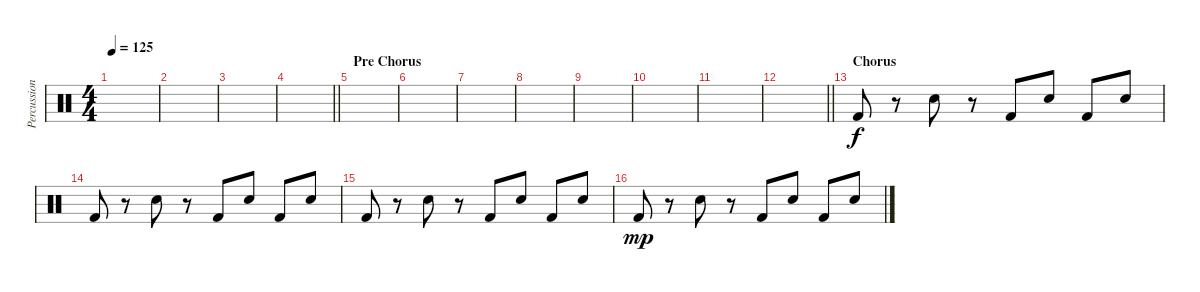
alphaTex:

\track ("Percussion" "Percussion") {instrument percussion}
\staff {score}
\articulation defaults
\ts (4 4)
\tempo 125
\clef neutral
\ks c
|
|
|
\barLineRight lightlight
|
\section ("" "Pre Chorus")
|
|
|
|
|
|
|
\barLineRight lightlight
|
\section ("" "Chorus")
"Kick (hit) 2".8 r.8 "Snare (hit) 2".8 r.8 "Kick (hit) 2".8 "Snare (hit) 2".8 "Kick (hit) 2".8 "Snare (hit) 2".8 |
"Kick (hit) 2".8 r.8 "Snare (hit) 2".8 r.8 "Kick (hit) 2".8 "Snare (hit) 2".8 "Kick (hit) 2".8 "Snare (hit) 2".8 |
"Kick (hit) 2".8 r.8 "Snare (hit) 2".8 r.8 "Kick (hit) 2".8 "Snare (hit) 2".8 "Kick (hit) 2".8 "Snare (hit) 2".8 |
"Kick (hit) 2".8{dy mp} r.8 "Snare (hit) 2".8 r.8 "Kick (hit) 2".8 "Snare (hit) 2".8 "Kick (hit) 2".8 "Snare (hit) 2".8
